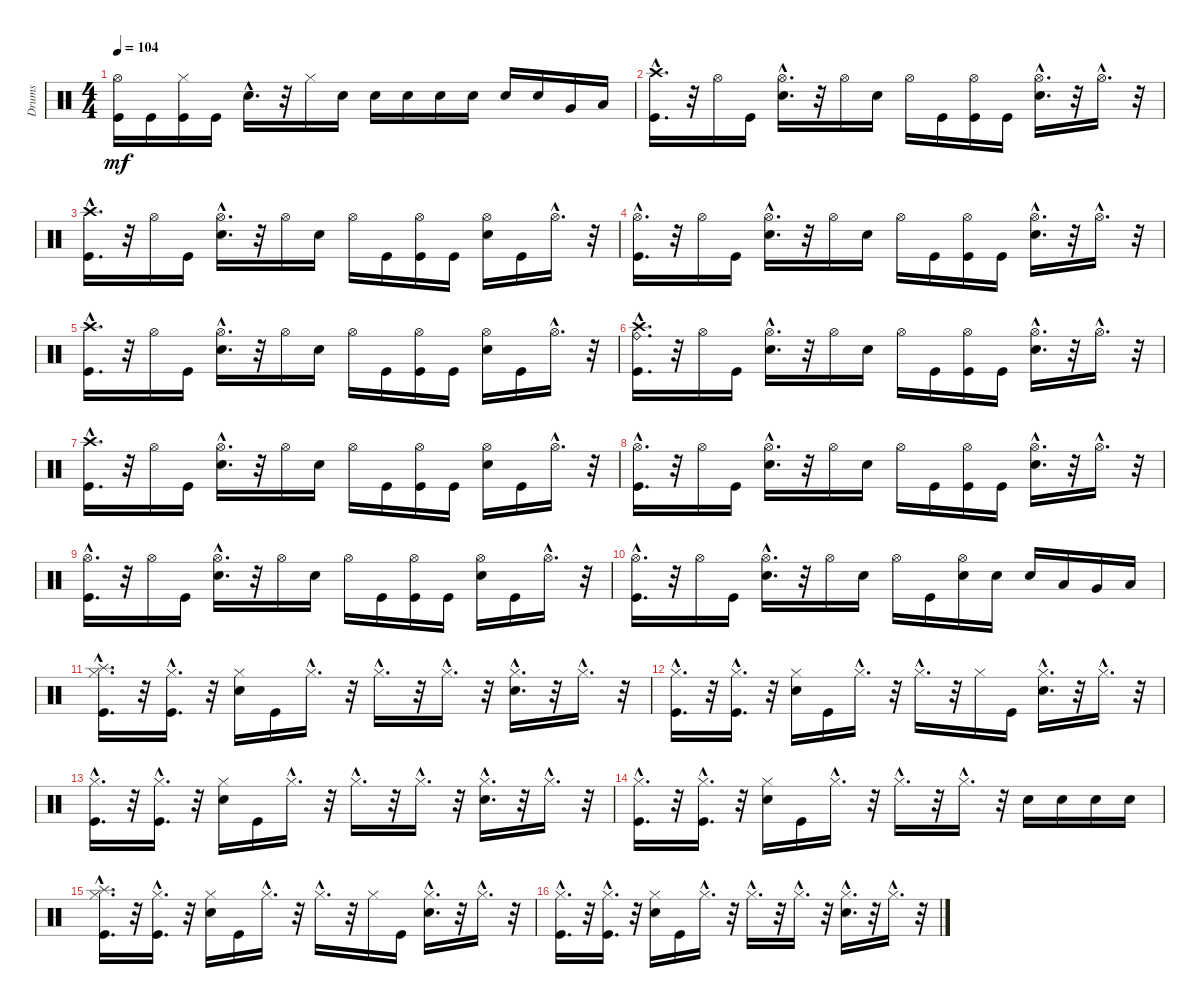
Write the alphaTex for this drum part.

\track ("Drums" "Drums") {instrument percussion}
\staff {score}
\articulation defaults
\ts (4 4)
\tempo 104
\clef neutral
\ks c
("Hi-Hat (open)" "Kick (hit)").16{dy mf} "Kick (hit)".16 ("Hi-Hat (closed)" "Kick (hit)").16 "Kick (hit)".16 "Electric Snare (hit)"{hac}.16{d} r.32 "Hi-Hat (closed)".16 "Electric Snare (hit)".16 "Electric Snare (hit)".16 "Electric Snare (hit)".16 "Electric Snare (hit)".16 "Electric Snare (hit)".16 "Electric Snare (hit)".16 "Electric Snare (hit)".16 "Very Low Tom (hit)".16 "Low Floor Tom (hit)".16 |
("Kick (hit)"{hac} "Crash high (hit)"{hac}).16{d} r.32 "Hi-Hat (open)".16 "Kick (hit)".16 ("Hi-Hat (open)"{hac} "Electric Snare (hit)"{hac}).16{d} r.32 "Hi-Hat (open)".16 "Electric Snare (hit)".16 "Hi-Hat (open)".16 "Kick (hit)".16 ("Hi-Hat (open)" "Kick (hit)").16 "Kick (hit)".16 ("Hi-Hat (open)"{hac} "Electric Snare (hit)"{hac}).16{d} r.32 "Hi-Hat (open)"{hac}.16{d} r.32 |
("Crash high (hit)"{hac} "Kick (hit)"{hac}).16{d} r.32 "Hi-Hat (open)".16 "Kick (hit)".16 ("Electric Snare (hit)"{hac} "Hi-Hat (open)"{hac}).16{d} r.32 "Hi-Hat (open)".16 "Electric Snare (hit)".16 "Hi-Hat (open)".16 "Kick (hit)".16 ("Hi-Hat (open)" "Kick (hit)").16 "Kick (hit)".16 ("Electric Snare (hit)" "Hi-Hat (open)").16 "Kick (hit)".16 "Hi-Hat (open)"{hac}.16{d} r.32 |
("Hi-Hat (open)"{hac} "Kick (hit)"{hac}).16{d} r.32 "Hi-Hat (open)".16 "Kick (hit)".16 ("Hi-Hat (open)"{hac} "Electric Snare (hit)"{hac}).16{d} r.32 "Hi-Hat (open)".16 "Electric Snare (hit)".16 "Hi-Hat (open)".16 "Kick (hit)".16 ("Hi-Hat (open)" "Kick (hit)").16 "Kick (hit)".16 ("Electric Snare (hit)"{hac} "Hi-Hat (open)"{hac}).16{d} r.32 "Hi-Hat (open)"{hac}.16{d} r.32 |
("Crash high (hit)"{hac} "Kick (hit)"{hac}).16{d} r.32 "Hi-Hat (open)".16 "Kick (hit)".16 ("Hi-Hat (open)"{hac} "Electric Snare (hit)"{hac}).16{d} r.32 "Hi-Hat (open)".16 "Electric Snare (hit)".16 "Hi-Hat (open)".16 "Kick (hit)".16 ("Hi-Hat (open)" "Kick (hit)").16 "Kick (hit)".16 ("Hi-Hat (open)" "Electric Snare (hit)").16 "Kick (hit)".16 "Hi-Hat (open)"{hac}.16{d} r.32 |
("Kick (hit)"{hac} "Crash high (hit)"{hac} "Ride (bell)"{hac}).16{d} r.32 "Hi-Hat (open)".16 "Kick (hit)".16 ("Electric Snare (hit)"{hac} "Hi-Hat (open)"{hac}).16{d} r.32 "Hi-Hat (open)".16 "Electric Snare (hit)".16 "Hi-Hat (open)".16 "Kick (hit)".16 ("Kick (hit)" "Hi-Hat (open)").16 "Kick (hit)".16 ("Hi-Hat (open)"{hac} "Electric Snare (hit)"{hac}).16{d} r.32 "Hi-Hat (open)"{hac}.16{d} r.32 |
("Crash high (hit)"{hac} "Kick (hit)"{hac}).16{d} r.32 "Hi-Hat (open)".16 "Kick (hit)".16 ("Hi-Hat (open)"{hac} "Electric Snare (hit)"{hac}).16{d} r.32 "Hi-Hat (open)".16 "Electric Snare (hit)".16 "Hi-Hat (open)".16 "Kick (hit)".16 ("Hi-Hat (open)" "Kick (hit)").16 "Kick (hit)".16 ("Electric Snare (hit)" "Hi-Hat (open)").16 "Kick (hit)".16 "Hi-Hat (open)"{hac}.16{d} r.32 |
("Kick (hit)"{hac} "Hi-Hat (open)"{hac}).16{d} r.32 "Hi-Hat (open)".16 "Kick (hit)".16 ("Electric Snare (hit)"{hac} "Hi-Hat (open)"{hac}).16{d} r.32 "Hi-Hat (open)".16 "Electric Snare (hit)".16 "Hi-Hat (open)".16 "Kick (hit)".16 ("Hi-Hat (open)" "Kick (hit)").16 "Kick (hit)".16 ("Hi-Hat (open)"{hac} "Electric Snare (hit)"{hac}).16{d} r.32 "Hi-Hat (open)"{hac}.16{d} r.32 |
("Hi-Hat (open)"{hac} "Kick (hit)"{hac}).16{d} r.32 "Hi-Hat (open)".16 "Kick (hit)".16 ("Hi-Hat (open)"{hac} "Electric Snare (hit)"{hac}).16{d} r.32 "Hi-Hat (open)".16 "Electric Snare (hit)".16 "Hi-Hat (open)".16 "Kick (hit)".16 ("Kick (hit)" "Hi-Hat (open)").16 "Kick (hit)".16 ("Hi-Hat (open)" "Electric Snare (hit)").16 "Kick (hit)".16 "Hi-Hat (open)"{hac}.16{d} r.32 |
("Kick (hit)"{hac} "Hi-Hat (open)"{hac}).16{d} r.32 "Hi-Hat (open)".16 "Kick (hit)".16 ("Hi-Hat (open)"{hac} "Electric Snare (hit)"{hac}).16{d} r.32 "Hi-Hat (open)".16 "Electric Snare (hit)".16 "Hi-Hat (open)".16 "Kick (hit)".16 ("Hi-Hat (open)" "Electric Snare (hit)").16 "Electric Snare (hit)".16 "Electric Snare (hit)".16 "Low Tom (hit)".16 "Very Low Tom (hit)".16 "Low Floor Tom (hit)".16 |
("Splash (hit)"{hac} "Hi-Hat (closed)"{hac} "Kick (hit)"{hac}).16{d} r.32 ("Kick (hit)"{hac} "Hi-Hat (closed)"{hac}).16{d} r.32 ("Electric Snare (hit)" "Hi-Hat (closed)").16 "Kick (hit)".16 "Hi-Hat (closed)"{hac}.16{d} r.32 "Hi-Hat (closed)"{hac}.16{d} r.32 "Hi-Hat (closed)"{hac}.16{d} r.32 ("Electric Snare (hit)"{hac} "Hi-Hat (closed)"{hac}).16{d} r.32 "Hi-Hat (closed)"{hac}.16{d} r.32 |
("Kick (hit)"{hac} "Hi-Hat (closed)"{hac}).16{d} r.32 ("Hi-Hat (closed)"{hac} "Kick (hit)"{hac}).16{d} r.32 ("Electric Snare (hit)" "Hi-Hat (closed)").16 "Kick (hit)".16 "Hi-Hat (closed)"{hac}.16{d} r.32 "Hi-Hat (closed)"{hac}.16{d} r.32 "Hi-Hat (closed)".16 "Kick (hit)".16 ("Hi-Hat (closed)"{hac} "Electric Snare (hit)"{hac}).16{d} r.32 "Hi-Hat (closed)"{hac}.16{d} r.32 |
("Hi-Hat (closed)"{hac} "Kick (hit)"{hac}).16{d} r.32 ("Kick (hit)"{hac} "Hi-Hat (closed)"{hac}).16{d} r.32 ("Hi-Hat (closed)" "Electric Snare (hit)").16 "Kick (hit)".16 "Hi-Hat (closed)"{hac}.16{d} r.32 "Hi-Hat (closed)"{hac}.16{d} r.32 "Hi-Hat (closed)"{hac}.16{d} r.32 ("Hi-Hat (closed)"{hac} "Electric Snare (hit)"{hac}).16{d} r.32 "Hi-Hat (closed)"{hac}.16{d} r.32 |
("Hi-Hat (closed)"{hac} "Kick (hit)"{hac}).16{d} r.32 ("Kick (hit)"{hac} "Hi-Hat (closed)"{hac}).16{d} r.32 ("Electric Snare (hit)" "Hi-Hat (closed)").16 "Kick (hit)".16 "Hi-Hat (closed)"{hac}.16{d} r.32 "Hi-Hat (closed)"{hac}.16{d} r.32 "Hi-Hat (closed)"{hac}.16{d} r.32 "Electric Snare (hit)".16 "Electric Snare (hit)".16 "Electric Snare (hit)".16 "Electric Snare (hit)".16 |
("Hi-Hat (closed)"{hac} "Kick (hit)"{hac} "Splash (hit)"{hac}).16{d} r.32 ("Kick (hit)"{hac} "Hi-Hat (closed)"{hac}).16{d} r.32 ("Hi-Hat (closed)" "Electric Snare (hit)").16 "Kick (hit)".16 "Hi-Hat (closed)"{hac}.16{d} r.32 "Hi-Hat (closed)"{hac}.16{d} r.32 "Hi-Hat (closed)".16 "Kick (hit)".16 ("Hi-Hat (closed)"{hac} "Electric Snare (hit)"{hac}).16{d} r.32 "Hi-Hat (closed)"{hac}.16{d} r.32 |
("Hi-Hat (closed)"{hac} "Kick (hit)"{hac}).16{d} r.32 ("Kick (hit)"{hac} "Hi-Hat (closed)"{hac}).16{d} r.32 ("Electric Snare (hit)" "Hi-Hat (closed)").16 "Kick (hit)".16 "Hi-Hat (closed)"{hac}.16{d} r.32 "Hi-Hat (closed)"{hac}.16{d} r.32 "Hi-Hat (closed)"{hac}.16{d} r.32 ("Hi-Hat (closed)"{hac} "Electric Snare (hit)"{hac}).16{d} r.32 "Hi-Hat (closed)"{hac}.16{d} r.32
